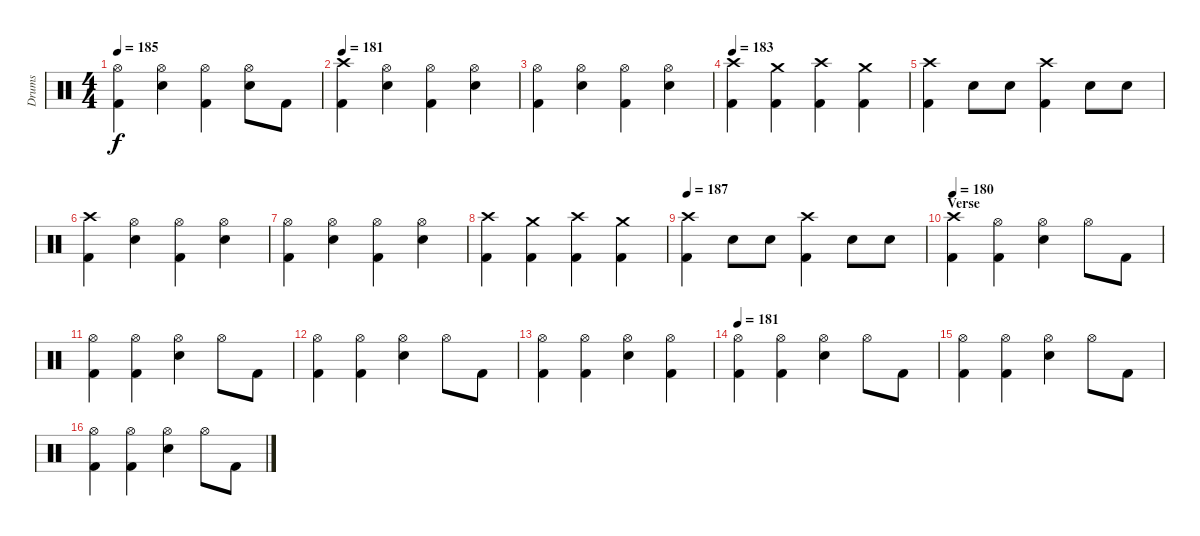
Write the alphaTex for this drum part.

\track ("Drums" "Drums") {instrument percussion}
\staff {score}
\articulation defaults
\ts (4 4)
\tempo 185
\clef neutral
\ks c
("Hi-Hat (open)" "Kick (hit) 2").4{dy f} ("Hi-Hat (open)" "Snare (hit) 2").4 ("Hi-Hat (open)" "Kick (hit) 2").4 ("Hi-Hat (open)" "Snare (hit) 2").8 "Kick (hit) 2".8 |
\tempo 181
("Crash high (hit)" "Kick (hit) 2").4 ("Hi-Hat (open)" "Snare (hit) 2").4 ("Hi-Hat (open)" "Kick (hit) 2").4 ("Hi-Hat (open)" "Snare (hit) 2").4 |
("Hi-Hat (open)" "Kick (hit) 2").4 ("Hi-Hat (open)" "Snare (hit) 2").4 ("Hi-Hat (open)" "Kick (hit) 2").4 ("Hi-Hat (open)" "Snare (hit) 2").4 |
\tempo 183
("Crash high (hit)" "Kick (hit) 2").4 ("Crash medium (hit)" "Kick (hit) 2").4 ("Crash high (hit)" "Kick (hit) 2").4 ("Crash medium (hit)" "Kick (hit) 2").4 |
("Crash high (hit)" "Kick (hit) 2").4 "Snare (hit) 2".8 "Snare (hit) 2".8 ("Crash high (hit)" "Kick (hit) 2").4 "Snare (hit) 2".8 "Snare (hit) 2".8 |
("Crash high (hit)" "Kick (hit) 2").4 ("Hi-Hat (open)" "Snare (hit) 2").4 ("Hi-Hat (open)" "Kick (hit) 2").4 ("Hi-Hat (open)" "Snare (hit) 2").4 |
("Hi-Hat (open)" "Kick (hit) 2").4 ("Hi-Hat (open)" "Snare (hit) 2").4 ("Hi-Hat (open)" "Kick (hit) 2").4 ("Hi-Hat (open)" "Snare (hit) 2").4 |
("Crash high (hit)" "Kick (hit) 2").4 ("Crash medium (hit)" "Kick (hit) 2").4 ("Crash high (hit)" "Kick (hit) 2").4 ("Crash medium (hit)" "Kick (hit) 2").4 |
\tempo 187
("Crash high (hit)" "Kick (hit) 2").4 "Snare (hit) 2".8 "Snare (hit) 2".8 ("Crash high (hit)" "Kick (hit) 2").4 "Snare (hit) 2".8 "Snare (hit) 2".8 |
\section ("" "Verse")
\tempo 180
("Crash high (hit)" "Kick (hit) 2").4 ("Kick (hit) 2" "Hi-Hat (open)").4 ("Snare (hit) 2" "Hi-Hat (open)").4 "Hi-Hat (open)".8 "Kick (hit) 2".8 |
("Kick (hit) 2" "Hi-Hat (open)").4 ("Kick (hit) 2" "Hi-Hat (open)").4 ("Snare (hit) 2" "Hi-Hat (open)").4 "Hi-Hat (open)".8 "Kick (hit) 2".8 |
("Kick (hit) 2" "Hi-Hat (open)").4 ("Kick (hit) 2" "Hi-Hat (open)").4 ("Snare (hit) 2" "Hi-Hat (open)").4 "Hi-Hat (open)".8 "Kick (hit) 2".8 |
("Kick (hit) 2" "Hi-Hat (open)").4 ("Kick (hit) 2" "Hi-Hat (open)").4 ("Snare (hit) 2" "Hi-Hat (open)").4 ("Hi-Hat (open)" "Kick (hit) 2").4 |
\tempo 181
("Kick (hit) 2" "Hi-Hat (open)").4 ("Kick (hit) 2" "Hi-Hat (open)").4 ("Snare (hit) 2" "Hi-Hat (open)").4 "Hi-Hat (open)".8 "Kick (hit) 2".8 |
("Kick (hit) 2" "Hi-Hat (open)").4 ("Kick (hit) 2" "Hi-Hat (open)").4 ("Snare (hit) 2" "Hi-Hat (open)").4 "Hi-Hat (open)".8 "Kick (hit) 2".8 |
("Kick (hit) 2" "Hi-Hat (open)").4 ("Kick (hit) 2" "Hi-Hat (open)").4 ("Snare (hit) 2" "Hi-Hat (open)").4 "Hi-Hat (open)".8 "Kick (hit) 2".8
